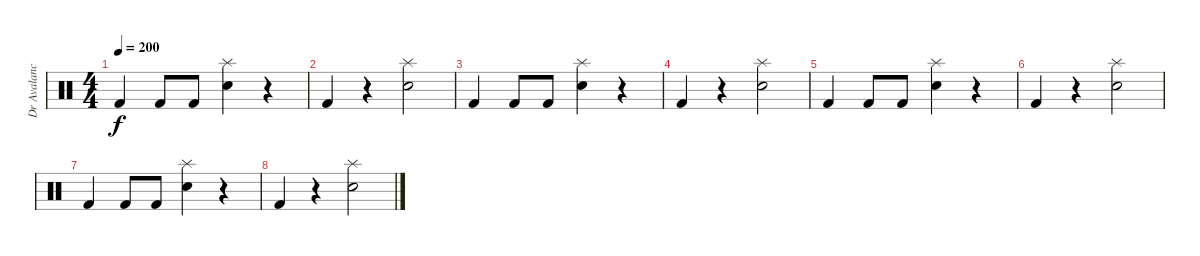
\track ("Dr Avalanche" "Dr Avalanc") {instrument percussion}
\staff {score}
\articulation defaults
\ts (4 4)
\tempo 200
\clef neutral
\ks c "Kick (hit) 2".4{dy f} "Kick (hit) 2".8 "Kick (hit) 2".8
("Snare (hit) 2" "Splash (hit)").4 r.4 |
"Kick (hit) 2".4 r.4 ("Snare (hit) 2" "Splash (hit)").2 |
"Kick (hit) 2".4 "Kick (hit) 2".8 "Kick (hit) 2".8 ("Snare (hit) 2" "Splash (hit)").4 r.4 |
"Kick (hit) 2".4 r.4 ("Snare (hit) 2" "Splash (hit)").2 |
"Kick (hit) 2".4 "Kick (hit) 2".8 "Kick (hit) 2".8 ("Snare (hit) 2" "Splash (hit)").4 r.4 |
"Kick (hit) 2".4 r.4 ("Snare (hit) 2" "Splash (hit)").2 |
"Kick (hit) 2".4 "Kick (hit) 2".8 "Kick (hit) 2".8 ("Snare (hit) 2" "Splash (hit)").4 r.4 |
"Kick (hit) 2".4 r.4 ("Snare (hit) 2" "Splash (hit)").2
